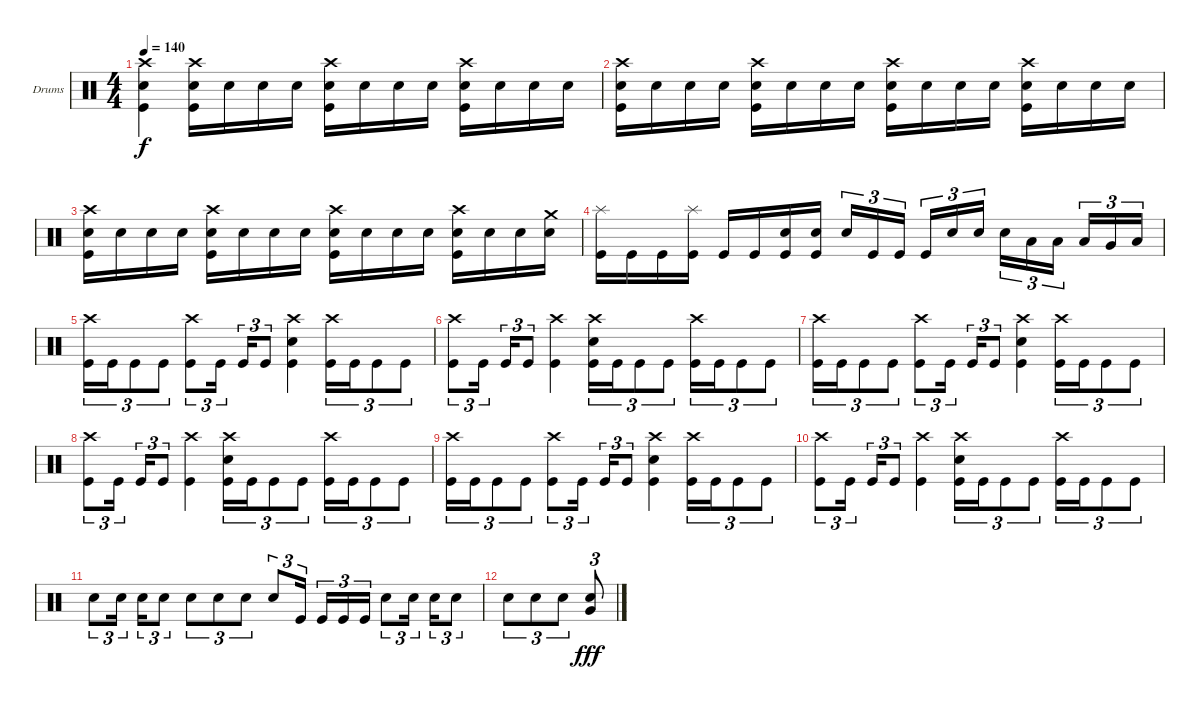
\bracketExtendMode groupsimilarinstruments
\firstSystemTrackNameOrientation horizontal
\otherSystemsTrackNameOrientation horizontal
\track ("Drumkit" "Drums") {instrument percussion}
\staff {score}
\articulation defaults
\ts (4 4)
\tempo 140
\clef neutral
\ks c
("Crash high (hit)" "Kick (hit)" "Snare (hit) 2").4{dy f} ("Snare (hit) 2" "Crash high (hit)" "Kick (hit)").16 "Snare (hit) 2".16 "Snare (hit) 2".16 "Snare (hit) 2".16 ("Snare (hit) 2" "Crash high (hit)" "Kick (hit)").16 "Snare (hit) 2".16 "Snare (hit) 2".16 "Snare (hit) 2".16 ("Snare (hit) 2" "Crash high (hit)" "Kick (hit)").16 "Snare (hit) 2".16 "Snare (hit) 2".16 "Snare (hit) 2".16 |
("Snare (hit) 2" "Crash high (hit)" "Kick (hit)").16 "Snare (hit) 2".16 "Snare (hit) 2".16 "Snare (hit) 2".16 ("Snare (hit) 2" "Crash high (hit)" "Kick (hit)").16 "Snare (hit) 2".16 "Snare (hit) 2".16 "Snare (hit) 2".16 ("Snare (hit) 2" "Crash high (hit)" "Kick (hit)").16 "Snare (hit) 2".16 "Snare (hit) 2".16 "Snare (hit) 2".16 ("Snare (hit) 2" "Crash high (hit)" "Kick (hit)").16 "Snare (hit) 2".16 "Snare (hit) 2".16 "Snare (hit) 2".16 |
("Snare (hit) 2" "Crash high (hit)" "Kick (hit)").16 "Snare (hit) 2".16 "Snare (hit) 2".16 "Snare (hit) 2".16 ("Snare (hit) 2" "Crash high (hit)" "Kick (hit)").16 "Snare (hit) 2".16 "Snare (hit) 2".16 "Snare (hit) 2".16 ("Snare (hit) 2" "Crash high (hit)" "Kick (hit)").16 "Snare (hit) 2".16 "Snare (hit) 2".16 "Snare (hit) 2".16 ("Snare (hit) 2" "Crash high (hit)" "Kick (hit)").16 "Snare (hit) 2".16 "Snare (hit) 2".16 ("Snare (hit) 2" "Crash medium (hit)").16 |
("Kick (hit)" "Splash (hit)").16 "Kick (hit)".16 "Kick (hit)".16 ("Kick (hit)" "Splash (hit)").16 "Kick (hit)".16 "Kick (hit)".16 ("Kick (hit)" "Snare (hit) 2").16 ("Kick (hit)" "Snare (hit) 2").16 "Snare (hit) 2".16{tu (3 2)} "Kick (hit)".16{tu (3 2)} "Kick (hit)".16{tu (3 2)} "Kick (hit)".16{tu (3 2)} "Snare (hit) 2".16{tu (3 2)} "Snare (hit) 2".16{tu (3 2)} "Snare (hit) 2".16{tu (3 2)} "Low Tom (hit)".16{tu (3 2)} "Low Tom (hit)".16{tu (3 2)} "Low Tom (hit)".16{tu (3 2)} "Very Low Tom (hit)".16{tu (3 2)} "Low Tom (hit)".16{tu (3 2)} |
("Kick (hit)" "Crash high (hit)").16{tu (3 2)} "Kick (hit)".16{tu (3 2)} "Kick (hit)".8{tu (3 2)} "Kick (hit)".8{tu (3 2)} ("Kick (hit)" "Crash high (hit)").8{tu (3 2)} "Kick (hit)".16{tu (3 2)} "Kick (hit)".16{tu (3 2)} "Kick (hit)".8{tu (3 2)} ("Kick (hit)" "Snare (hit) 2" "Crash high (hit)").4 ("Kick (hit)" "Crash high (hit)").16{tu (3 2)} "Kick (hit)".16{tu (3 2)} "Kick (hit)".8{tu (3 2)} "Kick (hit)".8{tu (3 2)} |
("Kick (hit)" "Crash high (hit)").8{tu (3 2)} "Kick (hit)".16{tu (3 2)} "Kick (hit)".16{tu (3 2)} "Kick (hit)".8{tu (3 2)} ("Kick (hit)" "Crash high (hit)").4 ("Kick (hit)" "Crash high (hit)" "Snare (hit) 2").16{tu (3 2)} "Kick (hit)".16{tu (3 2)} "Kick (hit)".8{tu (3 2)} "Kick (hit)".8{tu (3 2)} ("Kick (hit)" "Crash high (hit)").16{tu (3 2)} "Kick (hit)".16{tu (3 2)} "Kick (hit)".8{tu (3 2)} "Kick (hit)".8{tu (3 2)} |
("Kick (hit)" "Crash high (hit)").16{tu (3 2)} "Kick (hit)".16{tu (3 2)} "Kick (hit)".8{tu (3 2)} "Kick (hit)".8{tu (3 2)} ("Kick (hit)" "Crash high (hit)").8{tu (3 2)} "Kick (hit)".16{tu (3 2)} "Kick (hit)".16{tu (3 2)} "Kick (hit)".8{tu (3 2)} ("Kick (hit)" "Snare (hit) 2" "Crash high (hit)").4 ("Kick (hit)" "Crash high (hit)").16{tu (3 2)} "Kick (hit)".16{tu (3 2)} "Kick (hit)".8{tu (3 2)} "Kick (hit)".8{tu (3 2)} |
("Kick (hit)" "Crash high (hit)").8{tu (3 2)} "Kick (hit)".16{tu (3 2)} "Kick (hit)".16{tu (3 2)} "Kick (hit)".8{tu (3 2)} ("Kick (hit)" "Crash high (hit)").4 ("Kick (hit)" "Crash high (hit)" "Snare (hit) 2").16{tu (3 2)} "Kick (hit)".16{tu (3 2)} "Kick (hit)".8{tu (3 2)} "Kick (hit)".8{tu (3 2)} ("Kick (hit)" "Crash high (hit)").16{tu (3 2)} "Kick (hit)".16{tu (3 2)} "Kick (hit)".8{tu (3 2)} "Kick (hit)".8{tu (3 2)} |
("Kick (hit)" "Crash high (hit)").16{tu (3 2)} "Kick (hit)".16{tu (3 2)} "Kick (hit)".8{tu (3 2)} "Kick (hit)".8{tu (3 2)} ("Kick (hit)" "Crash high (hit)").8{tu (3 2)} "Kick (hit)".16{tu (3 2)} "Kick (hit)".16{tu (3 2)} "Kick (hit)".8{tu (3 2)} ("Kick (hit)" "Snare (hit) 2" "Crash high (hit)").4 ("Kick (hit)" "Crash high (hit)").16{tu (3 2)} "Kick (hit)".16{tu (3 2)} "Kick (hit)".8{tu (3 2)} "Kick (hit)".8{tu (3 2)} |
("Kick (hit)" "Crash high (hit)").8{tu (3 2)} "Kick (hit)".16{tu (3 2)} "Kick (hit)".16{tu (3 2)} "Kick (hit)".8{tu (3 2)} ("Kick (hit)" "Crash high (hit)").4 ("Kick (hit)" "Crash high (hit)" "Snare (hit) 2").16{tu (3 2)} "Kick (hit)".16{tu (3 2)} "Kick (hit)".8{tu (3 2)} "Kick (hit)".8{tu (3 2)} ("Kick (hit)" "Crash high (hit)").16{tu (3 2)} "Kick (hit)".16{tu (3 2)} "Kick (hit)".8{tu (3 2)} "Kick (hit)".8{tu (3 2)} |
"Snare (hit) 2".8{tu (3 2)} "Snare (hit) 2".16{tu (3 2)} "Snare (hit) 2".16{tu (3 2)} "Snare (hit) 2".8{tu (3 2)} "Snare (hit) 2".8{tu (3 2)} "Snare (hit) 2".8{tu (3 2)} "Snare (hit) 2".8{tu (3 2)} "Snare (hit) 2".8{tu (3 2)} "Kick (hit)".16{tu (3 2)} "Kick (hit)".16{tu (3 2)} "Kick (hit)".16{tu (3 2)} "Kick (hit)".16{tu (3 2)} "Snare (hit) 2".8{tu (3 2)} "Snare (hit) 2".16{tu (3 2)} "Snare (hit) 2".16{tu (3 2)} "Snare (hit) 2".8{tu (3 2)} |
"Snare (hit) 2".8{tu (3 2)} "Snare (hit) 2".8{tu (3 2)} "Snare (hit) 2".8{tu (3 2)} ("Snare (hit) 2" "Very Low Tom (hit)").8{tu (3 2) dy fff}
